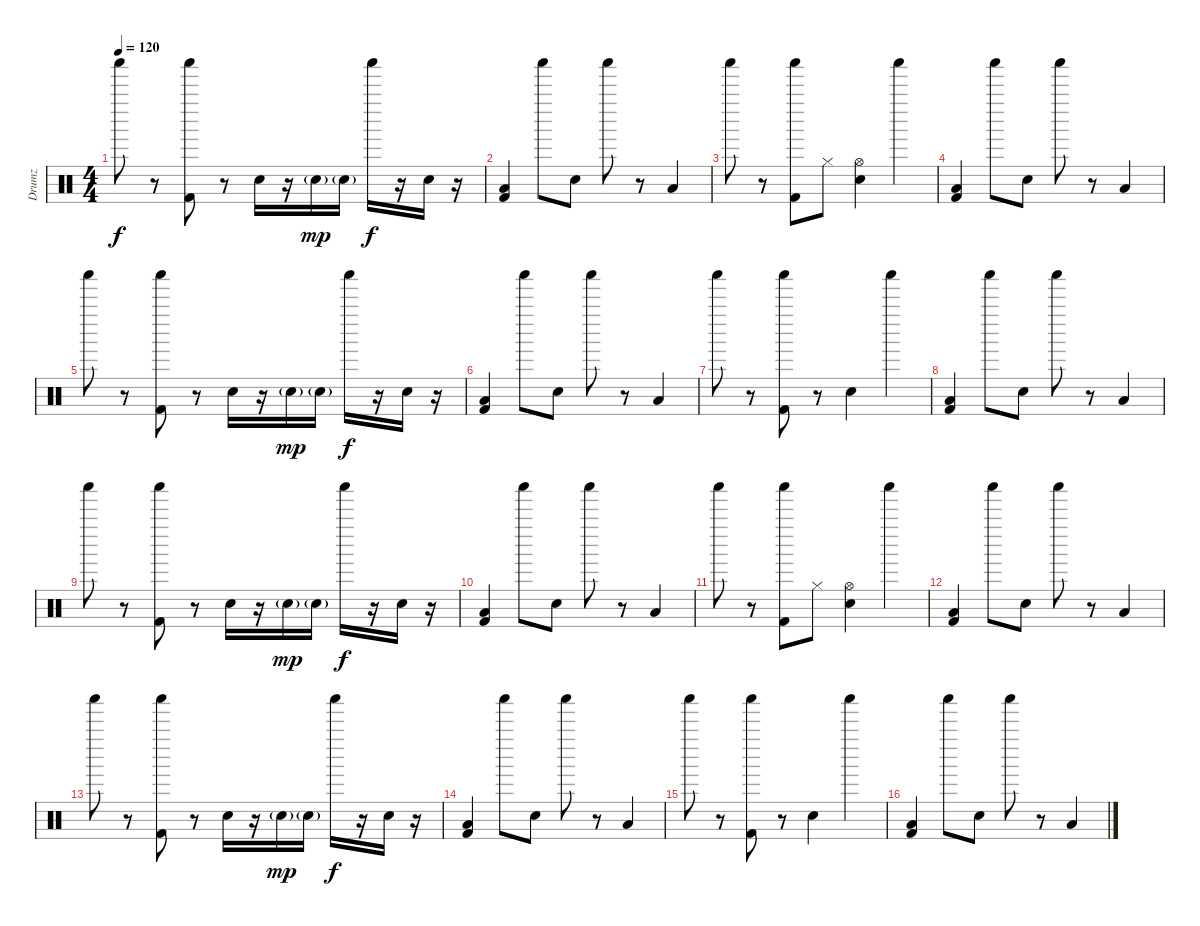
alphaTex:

\track ("Drumz" "Drumz") {instrument percussion}
\staff {score}
\articulation defaults
\ts (4 4)
\tempo 120
\clef neutral
\ks c "Shaker (hit)".8{dy f}
r.8 ("Kick (hit) 2" "Shaker (hit)").8 r.8 "Electric Snare (hit)".16 r.16 "Electric Snare (hit)"{g}.16{dy mp} "Electric Snare (hit)"{g}.16 "Shaker (hit)".16{dy f} r.16 "Electric Snare (hit)".16 r.16 |
("Low Tom (hit)" "Kick (hit) 2").4 "Shaker (hit)".8 "Electric Snare (hit)".8 "Shaker (hit)".8 r.8 "Low Tom (hit)".4 |
"Shaker (hit)".8 r.8 ("Kick (hit) 2" "Shaker (hit)").8 "Hi-Hat (closed)".8 ("Hi-Hat (open)" "Electric Snare (hit)").4 "Shaker (hit)".4 |
("Low Tom (hit)" "Kick (hit) 2").4 "Shaker (hit)".8 "Electric Snare (hit)".8 "Shaker (hit)".8 r.8 "Low Tom (hit)".4 |
"Shaker (hit)".8 r.8 ("Kick (hit) 2" "Shaker (hit)").8 r.8 "Electric Snare (hit)".16 r.16 "Electric Snare (hit)"{g}.16{dy mp} "Electric Snare (hit)"{g}.16 "Shaker (hit)".16{dy f} r.16 "Electric Snare (hit)".16 r.16 |
("Low Tom (hit)" "Kick (hit) 2").4 "Shaker (hit)".8 "Electric Snare (hit)".8 "Shaker (hit)".8 r.8 "Low Tom (hit)".4 |
"Shaker (hit)".8 r.8 ("Kick (hit) 2" "Shaker (hit)").8 r.8 "Electric Snare (hit)".4 "Shaker (hit)".4 |
("Low Tom (hit)" "Kick (hit) 2").4 "Shaker (hit)".8 "Electric Snare (hit)".8 "Shaker (hit)".8 r.8 "Low Tom (hit)".4 |
"Shaker (hit)".8 r.8 ("Kick (hit) 2" "Shaker (hit)").8 r.8 "Electric Snare (hit)".16 r.16 "Electric Snare (hit)"{g}.16{dy mp} "Electric Snare (hit)"{g}.16 "Shaker (hit)".16{dy f} r.16 "Electric Snare (hit)".16 r.16 |
("Low Tom (hit)" "Kick (hit) 2").4 "Shaker (hit)".8 "Electric Snare (hit)".8 "Shaker (hit)".8 r.8 "Low Tom (hit)".4 |
"Shaker (hit)".8 r.8 ("Kick (hit) 2" "Shaker (hit)").8 "Hi-Hat (closed)".8 ("Hi-Hat (open)" "Electric Snare (hit)").4 "Shaker (hit)".4 |
("Low Tom (hit)" "Kick (hit) 2").4 "Shaker (hit)".8 "Electric Snare (hit)".8 "Shaker (hit)".8 r.8 "Low Tom (hit)".4 |
"Shaker (hit)".8 r.8 ("Kick (hit) 2" "Shaker (hit)").8 r.8 "Electric Snare (hit)".16 r.16 "Electric Snare (hit)"{g}.16{dy mp} "Electric Snare (hit)"{g}.16 "Shaker (hit)".16{dy f} r.16 "Electric Snare (hit)".16 r.16 |
("Low Tom (hit)" "Kick (hit) 2").4 "Shaker (hit)".8 "Electric Snare (hit)".8 "Shaker (hit)".8 r.8 "Low Tom (hit)".4 |
"Shaker (hit)".8 r.8 ("Kick (hit) 2" "Shaker (hit)").8 r.8 "Electric Snare (hit)".4 "Shaker (hit)".4 |
("Low Tom (hit)" "Kick (hit) 2").4 "Shaker (hit)".8 "Electric Snare (hit)".8 "Shaker (hit)".8 r.8 "Low Tom (hit)".4
